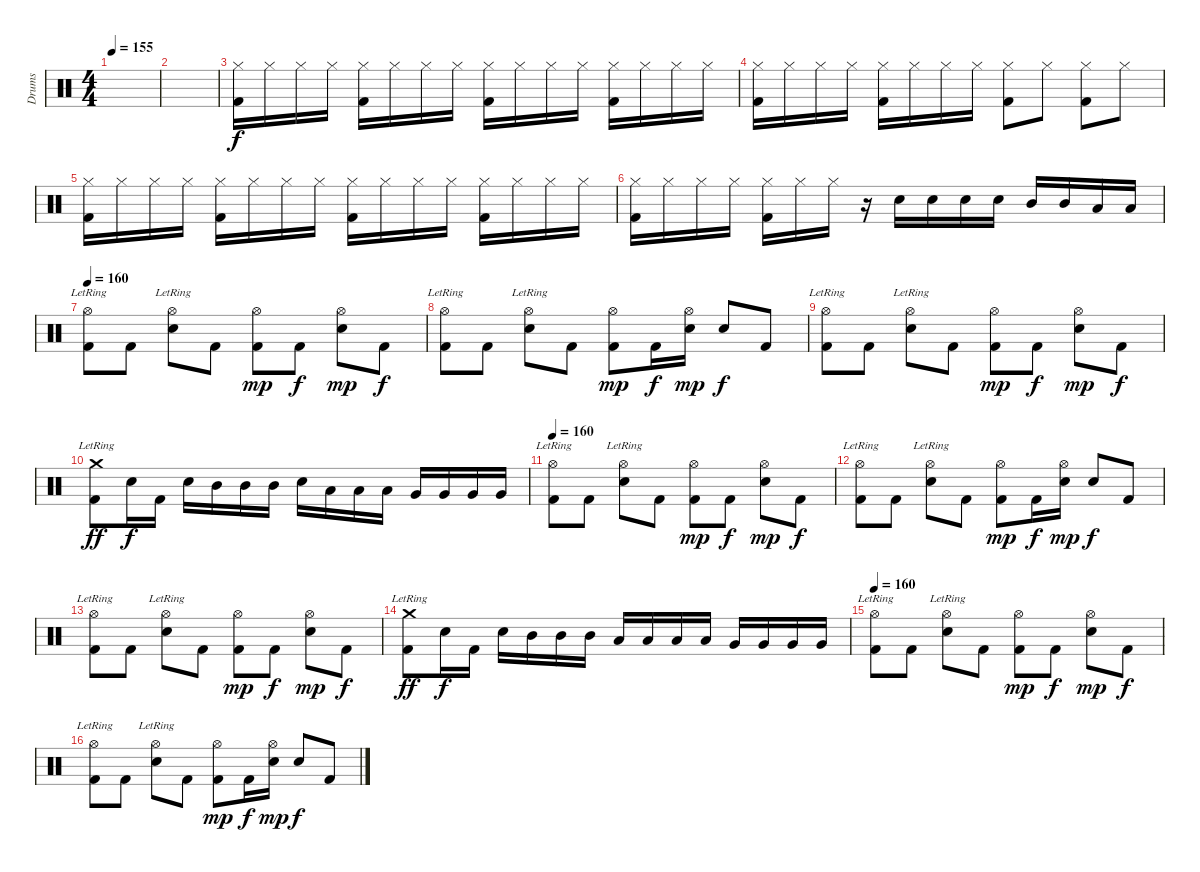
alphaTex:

\track ("Drums" "Drums") {instrument percussion}
\staff {score}
\articulation defaults
\ts (4 4)
\tempo 155
\clef neutral
\ks c
|
|
("Hi-Hat (closed)" "Kick (hit) 2").16 "Hi-Hat (closed)".16 "Hi-Hat (closed)".16 "Hi-Hat (closed)".16 ("Hi-Hat (closed)" "Kick (hit) 2").16 "Hi-Hat (closed)".16 "Hi-Hat (closed)".16 "Hi-Hat (closed)".16 ("Hi-Hat (closed)" "Kick (hit) 2").16 "Hi-Hat (closed)".16 "Hi-Hat (closed)".16 "Hi-Hat (closed)".16 ("Hi-Hat (closed)" "Kick (hit) 2").16 "Hi-Hat (closed)".16 "Hi-Hat (closed)".16 "Hi-Hat (closed)".16 |
("Hi-Hat (closed)" "Kick (hit) 2").16 "Hi-Hat (closed)".16 "Hi-Hat (closed)".16 "Hi-Hat (closed)".16 ("Hi-Hat (closed)" "Kick (hit) 2").16 "Hi-Hat (closed)".16 "Hi-Hat (closed)".16 "Hi-Hat (closed)".16 ("Hi-Hat (closed)" "Kick (hit) 2").8 "Hi-Hat (closed)".8 ("Hi-Hat (closed)" "Kick (hit) 2").8 "Hi-Hat (closed)".8 |
("Hi-Hat (closed)" "Kick (hit) 2").16 "Hi-Hat (closed)".16 "Hi-Hat (closed)".16 "Hi-Hat (closed)".16 ("Hi-Hat (closed)" "Kick (hit) 2").16 "Hi-Hat (closed)".16 "Hi-Hat (closed)".16 "Hi-Hat (closed)".16 ("Hi-Hat (closed)" "Kick (hit) 2").16 "Hi-Hat (closed)".16 "Hi-Hat (closed)".16 "Hi-Hat (closed)".16 ("Hi-Hat (closed)" "Kick (hit) 2").16 "Hi-Hat (closed)".16 "Hi-Hat (closed)".16 "Hi-Hat (closed)".16 |
("Hi-Hat (closed)" "Kick (hit) 2").16 "Hi-Hat (closed)".16 "Hi-Hat (closed)".16 "Hi-Hat (closed)".16 ("Hi-Hat (closed)" "Kick (hit) 2").16 "Hi-Hat (closed)".16 "Hi-Hat (closed)".16 r.16 "Electric Snare (hit)".16 "Electric Snare (hit)".16 "Electric Snare (hit)".16 "Electric Snare (hit)".16 "Mid Tom (hit)".16 "Mid Tom (hit)".16 "Low Tom (hit)".16 "Low Tom (hit)".16 |
\tempo 160
("Hi-Hat (open)"{lr} "Kick (hit) 2").8 "Kick (hit) 2".8 ("Hi-Hat (open)"{lr} "Electric Snare (hit)").8 "Kick (hit) 2".8 ("Hi-Hat (open)" "Kick (hit) 2").8{dy mp} "Kick (hit) 2".8{dy f} ("Hi-Hat (open)" "Electric Snare (hit)").8{dy mp} "Kick (hit) 2".8{dy f} |
("Hi-Hat (open)"{lr} "Kick (hit) 2").8 "Kick (hit) 2".8 ("Hi-Hat (open)"{lr} "Electric Snare (hit)").8 "Kick (hit) 2".8 ("Hi-Hat (open)" "Kick (hit) 2").8{dy mp} "Kick (hit) 2".16{dy f} ("Hi-Hat (open)" "Electric Snare (hit)").16{dy mp} "Electric Snare (hit)".8{dy f} "Kick (hit) 2".8 |
("Hi-Hat (open)"{lr} "Kick (hit) 2").8 "Kick (hit) 2".8 ("Hi-Hat (open)"{lr} "Electric Snare (hit)").8 "Kick (hit) 2".8 ("Hi-Hat (open)" "Kick (hit) 2").8{dy mp} "Kick (hit) 2".8{dy f} ("Hi-Hat (open)" "Electric Snare (hit)").8{dy mp} "Kick (hit) 2".8{dy f} |
("Crash medium (hit)"{lr} "Kick (hit) 2").8{dy ff} "Electric Snare (hit)".16{dy f} "Kick (hit) 2".16 "Electric Snare (hit)".16 "Mid Tom (hit)".16 "Mid Tom (hit)".16 "Mid Tom (hit)".16 "Electric Snare (hit)".16 "Low Tom (hit)".16 "Low Tom (hit)".16 "Low Tom (hit)".16 "Very Low Tom (hit)".16 "Very Low Tom (hit)".16 "Very Low Tom (hit)".16 "Very Low Tom (hit)".16 |
\tempo 160
("Hi-Hat (open)"{lr} "Kick (hit) 2").8 "Kick (hit) 2".8 ("Hi-Hat (open)"{lr} "Electric Snare (hit)").8 "Kick (hit) 2".8 ("Hi-Hat (open)" "Kick (hit) 2").8{dy mp} "Kick (hit) 2".8{dy f} ("Hi-Hat (open)" "Electric Snare (hit)").8{dy mp} "Kick (hit) 2".8{dy f} |
("Hi-Hat (open)"{lr} "Kick (hit) 2").8 "Kick (hit) 2".8 ("Hi-Hat (open)"{lr} "Electric Snare (hit)").8 "Kick (hit) 2".8 ("Hi-Hat (open)" "Kick (hit) 2").8{dy mp} "Kick (hit) 2".16{dy f} ("Hi-Hat (open)" "Electric Snare (hit)").16{dy mp} "Electric Snare (hit)".8{dy f} "Kick (hit) 2".8 |
("Hi-Hat (open)"{lr} "Kick (hit) 2").8 "Kick (hit) 2".8 ("Hi-Hat (open)"{lr} "Electric Snare (hit)").8 "Kick (hit) 2".8 ("Hi-Hat (open)" "Kick (hit) 2").8{dy mp} "Kick (hit) 2".8{dy f} ("Hi-Hat (open)" "Electric Snare (hit)").8{dy mp} "Kick (hit) 2".8{dy f} |
("Crash medium (hit)"{lr} "Kick (hit) 2").8{dy ff} "Electric Snare (hit)".16{dy f} "Kick (hit) 2".16 "Electric Snare (hit)".16 "Mid Tom (hit)".16 "Mid Tom (hit)".16 "Mid Tom (hit)".16 "Low Tom (hit)".16 "Low Tom (hit)".16 "Low Tom (hit)".16 "Low Tom (hit)".16 "Very Low Tom (hit)".16 "Very Low Tom (hit)".16 "Very Low Tom (hit)".16 "Very Low Tom (hit)".16 |
\tempo 160
("Hi-Hat (open)"{lr} "Kick (hit) 2").8 "Kick (hit) 2".8 ("Hi-Hat (open)"{lr} "Electric Snare (hit)").8 "Kick (hit) 2".8 ("Hi-Hat (open)" "Kick (hit) 2").8{dy mp} "Kick (hit) 2".8{dy f} ("Hi-Hat (open)" "Electric Snare (hit)").8{dy mp} "Kick (hit) 2".8{dy f} |
("Hi-Hat (open)"{lr} "Kick (hit) 2").8 "Kick (hit) 2".8 ("Hi-Hat (open)"{lr} "Electric Snare (hit)").8 "Kick (hit) 2".8 ("Hi-Hat (open)" "Kick (hit) 2").8{dy mp} "Kick (hit) 2".16{dy f} ("Hi-Hat (open)" "Electric Snare (hit)").16{dy mp} "Electric Snare (hit)".8{dy f} "Kick (hit) 2".8
